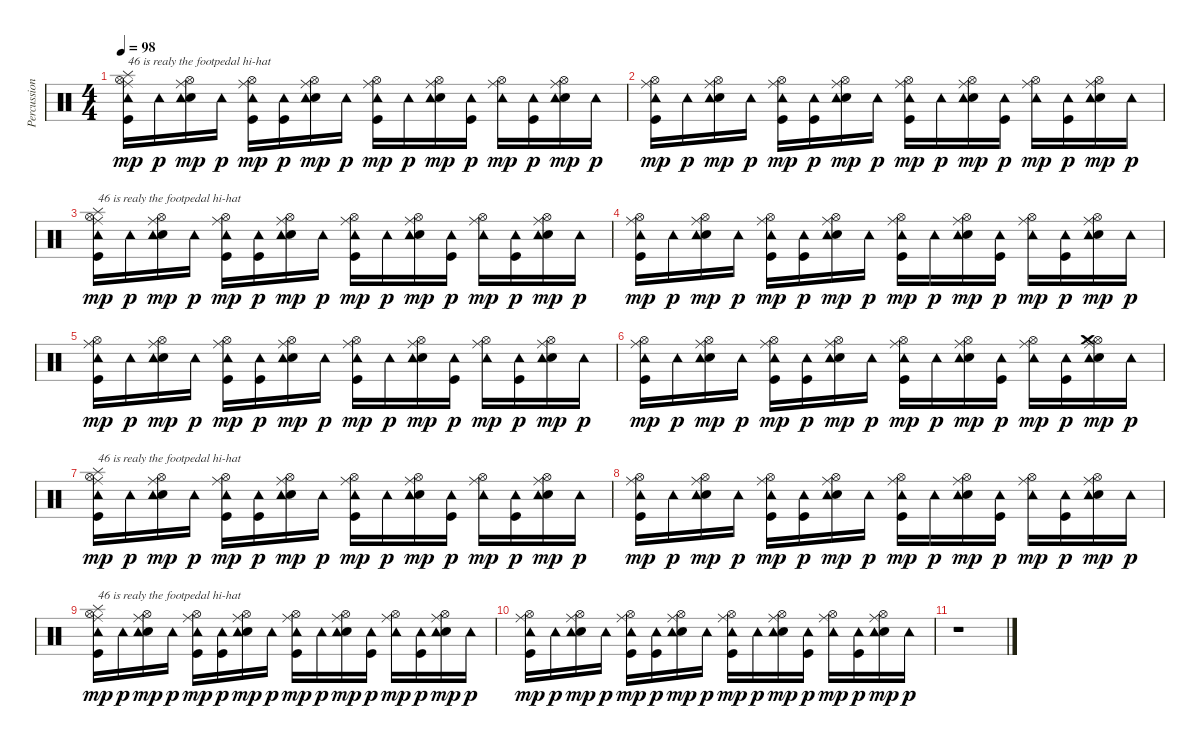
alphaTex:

\track ("Percussion" "Percussion") {instrument percussion}
\staff {score}
\articulation defaults
\ts (4 4)
\tempo 98
\clef neutral
\ks c
("Ride (middle)" "Hi-Hat (open)" "Kick (hit)" "Tambourine (hit)" "Splash (hit)").16{txt "46 is realy the footpedal hi-hat" dy mp volume 7} "Tambourine (hit)".16{dy p} ("Ride (middle)" "Hi-Hat (open)" "Snare (hit) 2" "Tambourine (hit)").16{dy mp} "Tambourine (hit)".16{dy p} ("Ride (middle)" "Hi-Hat (open)" "Kick (hit)" "Tambourine (hit)").16{dy mp} ("Kick (hit)" "Tambourine (hit)").16{dy p} ("Ride (middle)" "Hi-Hat (open)" "Snare (hit) 2" "Tambourine (hit)").16{dy mp} "Tambourine (hit)".16{dy p} ("Ride (middle)" "Hi-Hat (open)" "Kick (hit)" "Tambourine (hit)").16{dy mp} "Tambourine (hit)".16{dy p} ("Ride (middle)" "Hi-Hat (open)" "Snare (hit) 2" "Tambourine (hit)").16{dy mp} ("Kick (hit)" "Tambourine (hit)").16{dy p} ("Ride (middle)" "Hi-Hat (open)" "Tambourine (hit)").16{dy mp} ("Kick (hit)" "Tambourine (hit)").16{dy p} ("Ride (middle)" "Hi-Hat (open)" "Snare (hit) 2" "Tambourine (hit)").16{dy mp} "Tambourine (hit)".16{dy p} |
("Ride (middle)" "Hi-Hat (open)" "Kick (hit)" "Tambourine (hit)").16{dy mp} "Tambourine (hit)".16{dy p} ("Ride (middle)" "Hi-Hat (open)" "Snare (hit) 2" "Tambourine (hit)").16{dy mp} "Tambourine (hit)".16{dy p} ("Ride (middle)" "Hi-Hat (open)" "Kick (hit)" "Tambourine (hit)").16{dy mp} ("Kick (hit)" "Tambourine (hit)").16{dy p} ("Ride (middle)" "Hi-Hat (open)" "Snare (hit) 2" "Tambourine (hit)").16{dy mp} "Tambourine (hit)".16{dy p} ("Ride (middle)" "Hi-Hat (open)" "Kick (hit)" "Tambourine (hit)").16{dy mp} "Tambourine (hit)".16{dy p} ("Ride (middle)" "Hi-Hat (open)" "Snare (hit) 2" "Tambourine (hit)").16{dy mp} ("Kick (hit)" "Tambourine (hit)").16{dy p} ("Ride (middle)" "Hi-Hat (open)" "Tambourine (hit)").16{dy mp} ("Kick (hit)" "Tambourine (hit)").16{dy p} ("Ride (middle)" "Hi-Hat (open)" "Snare (hit) 2" "Tambourine (hit)").16{dy mp} "Tambourine (hit)".16{dy p} |
("Ride (middle)" "Hi-Hat (open)" "Kick (hit)" "Tambourine (hit)" "Splash (hit)").16{txt "46 is realy the footpedal hi-hat" dy mp} "Tambourine (hit)".16{dy p} ("Ride (middle)" "Hi-Hat (open)" "Snare (hit) 2" "Tambourine (hit)").16{dy mp} "Tambourine (hit)".16{dy p} ("Ride (middle)" "Hi-Hat (open)" "Kick (hit)" "Tambourine (hit)").16{dy mp} ("Kick (hit)" "Tambourine (hit)").16{dy p} ("Ride (middle)" "Hi-Hat (open)" "Snare (hit) 2" "Tambourine (hit)").16{dy mp} "Tambourine (hit)".16{dy p} ("Ride (middle)" "Hi-Hat (open)" "Kick (hit)" "Tambourine (hit)").16{dy mp} "Tambourine (hit)".16{dy p} ("Ride (middle)" "Hi-Hat (open)" "Snare (hit) 2" "Tambourine (hit)").16{dy mp} ("Kick (hit)" "Tambourine (hit)").16{dy p} ("Ride (middle)" "Hi-Hat (open)" "Tambourine (hit)").16{dy mp} ("Kick (hit)" "Tambourine (hit)").16{dy p} ("Ride (middle)" "Hi-Hat (open)" "Snare (hit) 2" "Tambourine (hit)").16{dy mp} "Tambourine (hit)".16{dy p} |
("Ride (middle)" "Hi-Hat (open)" "Kick (hit)" "Tambourine (hit)").16{dy mp} "Tambourine (hit)".16{dy p} ("Ride (middle)" "Hi-Hat (open)" "Snare (hit) 2" "Tambourine (hit)").16{dy mp} "Tambourine (hit)".16{dy p} ("Ride (middle)" "Hi-Hat (open)" "Kick (hit)" "Tambourine (hit)").16{dy mp} ("Kick (hit)" "Tambourine (hit)").16{dy p} ("Ride (middle)" "Hi-Hat (open)" "Snare (hit) 2" "Tambourine (hit)").16{dy mp} "Tambourine (hit)".16{dy p} ("Ride (middle)" "Hi-Hat (open)" "Kick (hit)" "Tambourine (hit)").16{dy mp} "Tambourine (hit)".16{dy p} ("Ride (middle)" "Hi-Hat (open)" "Snare (hit) 2" "Tambourine (hit)").16{dy mp} ("Kick (hit)" "Tambourine (hit)").16{dy p} ("Ride (middle)" "Hi-Hat (open)" "Tambourine (hit)").16{dy mp} ("Kick (hit)" "Tambourine (hit)").16{dy p} ("Ride (middle)" "Hi-Hat (open)" "Snare (hit) 2" "Tambourine (hit)").16{dy mp} "Tambourine (hit)".16{dy p} |
("Ride (middle)" "Hi-Hat (open)" "Kick (hit)" "Tambourine (hit)").16{dy mp volume 5} "Tambourine (hit)".16{dy p} ("Ride (middle)" "Hi-Hat (open)" "Snare (hit) 2" "Tambourine (hit)").16{dy mp} "Tambourine (hit)".16{dy p} ("Ride (middle)" "Hi-Hat (open)" "Kick (hit)" "Tambourine (hit)").16{dy mp} ("Kick (hit)" "Tambourine (hit)").16{dy p} ("Ride (middle)" "Hi-Hat (open)" "Snare (hit) 2" "Tambourine (hit)").16{dy mp} "Tambourine (hit)".16{dy p} ("Ride (middle)" "Hi-Hat (open)" "Kick (hit)" "Tambourine (hit)").16{dy mp} "Tambourine (hit)".16{dy p} ("Ride (middle)" "Hi-Hat (open)" "Snare (hit) 2" "Tambourine (hit)").16{dy mp} ("Kick (hit)" "Tambourine (hit)").16{dy p} ("Ride (middle)" "Hi-Hat (open)" "Tambourine (hit)").16{dy mp} ("Kick (hit)" "Tambourine (hit)").16{dy p} ("Ride (middle)" "Hi-Hat (open)" "Snare (hit) 2" "Tambourine (hit)").16{dy mp} "Tambourine (hit)".16{dy p} |
("Ride (middle)" "Hi-Hat (open)" "Kick (hit)" "Tambourine (hit)").16{dy mp} "Tambourine (hit)".16{dy p} ("Ride (middle)" "Hi-Hat (open)" "Snare (hit) 2" "Tambourine (hit)").16{dy mp} "Tambourine (hit)".16{dy p} ("Ride (middle)" "Hi-Hat (open)" "Kick (hit)" "Tambourine (hit)").16{dy mp} ("Kick (hit)" "Tambourine (hit)").16{dy p} ("Ride (middle)" "Hi-Hat (open)" "Snare (hit) 2" "Tambourine (hit)").16{dy mp} "Tambourine (hit)".16{dy p} ("Ride (middle)" "Hi-Hat (open)" "Kick (hit)" "Tambourine (hit)").16{dy mp} "Tambourine (hit)".16{dy p} ("Ride (middle)" "Hi-Hat (open)" "Snare (hit) 2" "Tambourine (hit)").16{dy mp} ("Kick (hit)" "Tambourine (hit)").16{dy p} ("Ride (middle)" "Hi-Hat (open)" "Tambourine (hit)").16{dy mp} ("Kick (hit)" "Tambourine (hit)").16{dy p} ("Ride (middle)" "Hi-Hat (open)" "Snare (hit) 2" "Tambourine (hit)" "Crash medium (hit)").16{dy mp} "Tambourine (hit)".16{dy p} |
("Ride (middle)" "Hi-Hat (open)" "Kick (hit)" "Tambourine (hit)" "Splash (hit)").16{txt "46 is realy the footpedal hi-hat" dy mp volume 0} "Tambourine (hit)".16{dy p} ("Ride (middle)" "Hi-Hat (open)" "Snare (hit) 2" "Tambourine (hit)").16{dy mp} "Tambourine (hit)".16{dy p} ("Ride (middle)" "Hi-Hat (open)" "Kick (hit)" "Tambourine (hit)").16{dy mp} ("Kick (hit)" "Tambourine (hit)").16{dy p} ("Ride (middle)" "Hi-Hat (open)" "Snare (hit) 2" "Tambourine (hit)").16{dy mp} "Tambourine (hit)".16{dy p} ("Ride (middle)" "Hi-Hat (open)" "Kick (hit)" "Tambourine (hit)").16{dy mp} "Tambourine (hit)".16{dy p} ("Ride (middle)" "Hi-Hat (open)" "Snare (hit) 2" "Tambourine (hit)").16{dy mp} ("Kick (hit)" "Tambourine (hit)").16{dy p} ("Ride (middle)" "Hi-Hat (open)" "Tambourine (hit)").16{dy mp} ("Kick (hit)" "Tambourine (hit)").16{dy p} ("Ride (middle)" "Hi-Hat (open)" "Snare (hit) 2" "Tambourine (hit)").16{dy mp} "Tambourine (hit)".16{dy p} |
("Ride (middle)" "Hi-Hat (open)" "Kick (hit)" "Tambourine (hit)").16{dy mp} "Tambourine (hit)".16{dy p} ("Ride (middle)" "Hi-Hat (open)" "Snare (hit) 2" "Tambourine (hit)").16{dy mp} "Tambourine (hit)".16{dy p} ("Ride (middle)" "Hi-Hat (open)" "Kick (hit)" "Tambourine (hit)").16{dy mp} ("Kick (hit)" "Tambourine (hit)").16{dy p} ("Ride (middle)" "Hi-Hat (open)" "Snare (hit) 2" "Tambourine (hit)").16{dy mp} "Tambourine (hit)".16{dy p} ("Ride (middle)" "Hi-Hat (open)" "Kick (hit)" "Tambourine (hit)").16{dy mp} "Tambourine (hit)".16{dy p} ("Ride (middle)" "Hi-Hat (open)" "Snare (hit) 2" "Tambourine (hit)").16{dy mp} ("Kick (hit)" "Tambourine (hit)").16{dy p} ("Ride (middle)" "Hi-Hat (open)" "Tambourine (hit)").16{dy mp} ("Kick (hit)" "Tambourine (hit)").16{dy p} ("Ride (middle)" "Hi-Hat (open)" "Snare (hit) 2" "Tambourine (hit)").16{dy mp} "Tambourine (hit)".16{dy p} |
("Ride (middle)" "Hi-Hat (open)" "Kick (hit)" "Tambourine (hit)" "Splash (hit)").16{txt "46 is realy the footpedal hi-hat" dy mp} "Tambourine (hit)".16{dy p} ("Ride (middle)" "Hi-Hat (open)" "Snare (hit) 2" "Tambourine (hit)").16{dy mp} "Tambourine (hit)".16{dy p} ("Ride (middle)" "Hi-Hat (open)" "Kick (hit)" "Tambourine (hit)").16{dy mp} ("Kick (hit)" "Tambourine (hit)").16{dy p} ("Ride (middle)" "Hi-Hat (open)" "Snare (hit) 2" "Tambourine (hit)").16{dy mp} "Tambourine (hit)".16{dy p} ("Ride (middle)" "Hi-Hat (open)" "Kick (hit)" "Tambourine (hit)").16{dy mp} "Tambourine (hit)".16{dy p} ("Ride (middle)" "Hi-Hat (open)" "Snare (hit) 2" "Tambourine (hit)").16{dy mp} ("Kick (hit)" "Tambourine (hit)").16{dy p} ("Ride (middle)" "Hi-Hat (open)" "Tambourine (hit)").16{dy mp} ("Kick (hit)" "Tambourine (hit)").16{dy p} ("Ride (middle)" "Hi-Hat (open)" "Snare (hit) 2" "Tambourine (hit)").16{dy mp} "Tambourine (hit)".16{dy p} |
("Ride (middle)" "Hi-Hat (open)" "Kick (hit)" "Tambourine (hit)").16{dy mp} "Tambourine (hit)".16{dy p} ("Ride (middle)" "Hi-Hat (open)" "Snare (hit) 2" "Tambourine (hit)").16{dy mp} "Tambourine (hit)".16{dy p} ("Ride (middle)" "Hi-Hat (open)" "Kick (hit)" "Tambourine (hit)").16{dy mp} ("Kick (hit)" "Tambourine (hit)").16{dy p} ("Ride (middle)" "Hi-Hat (open)" "Snare (hit) 2" "Tambourine (hit)").16{dy mp} "Tambourine (hit)".16{dy p} ("Ride (middle)" "Hi-Hat (open)" "Kick (hit)" "Tambourine (hit)").16{dy mp} "Tambourine (hit)".16{dy p} ("Ride (middle)" "Hi-Hat (open)" "Snare (hit) 2" "Tambourine (hit)").16{dy mp} ("Kick (hit)" "Tambourine (hit)").16{dy p} ("Ride (middle)" "Hi-Hat (open)" "Tambourine (hit)").16{dy mp} ("Kick (hit)" "Tambourine (hit)").16{dy p} ("Ride (middle)" "Hi-Hat (open)" "Snare (hit) 2" "Tambourine (hit)").16{dy mp} "Tambourine (hit)".16{dy p} |
r.1
